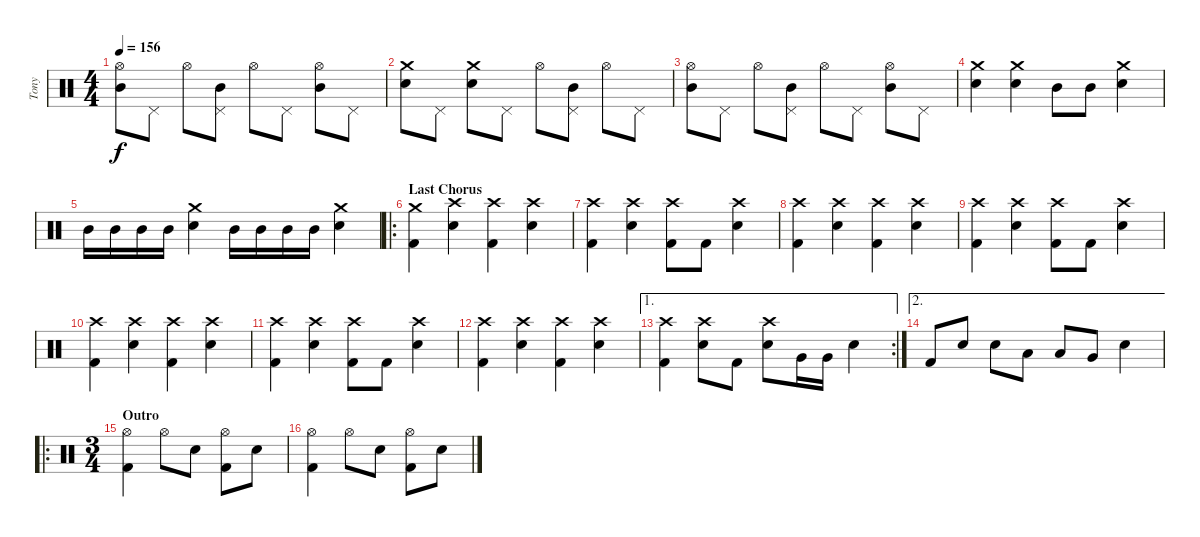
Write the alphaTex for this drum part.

\track ("Tony" "Tony") {instrument percussion}
\staff {score}
\articulation defaults
\ts (4 4)
\tempo 156
\clef neutral
\ks c
("Hi-Hat (open)" "Mid Tom (hit)").8{dy f} "Pedal Hi-Hat (hit)".8 "Hi-Hat (open)".8 ("Pedal Hi-Hat (hit)" "Mid Tom (hit)").8 "Hi-Hat (open)".8 "Pedal Hi-Hat (hit)".8 ("Hi-Hat (open)" "Mid Tom (hit)").8 "Pedal Hi-Hat (hit)".8 |
("Crash medium (hit)" "Electric Snare (hit)").8 "Pedal Hi-Hat (hit)".8 ("Crash medium (hit)" "Electric Snare (hit)").8 "Pedal Hi-Hat (hit)".8 "Hi-Hat (open)".8 ("Pedal Hi-Hat (hit)" "Mid Tom (hit)").8 "Hi-Hat (open)".8 "Pedal Hi-Hat (hit)".8 |
("Hi-Hat (open)" "Mid Tom (hit)").8 "Pedal Hi-Hat (hit)".8 "Hi-Hat (open)".8 ("Pedal Hi-Hat (hit)" "Mid Tom (hit)").8 "Hi-Hat (open)".8 "Pedal Hi-Hat (hit)".8 ("Hi-Hat (open)" "Mid Tom (hit)").8 "Pedal Hi-Hat (hit)".8 |
("Crash medium (hit)" "Electric Snare (hit)").4 ("Crash medium (hit)" "Electric Snare (hit)").4 "Mid Tom (hit)".8 "Mid Tom (hit)".8 ("Crash medium (hit)" "Electric Snare (hit)").4 |
"Mid Tom (hit)".16 "Mid Tom (hit)".16 "Mid Tom (hit)".16 "Mid Tom (hit)".16 ("Crash medium (hit)" "Electric Snare (hit)").4 "Mid Tom (hit)".16 "Mid Tom (hit)".16 "Mid Tom (hit)".16 "Mid Tom (hit)".16 ("Crash medium (hit)" "Electric Snare (hit)").4 |
\ro
\section ("" "Last Chorus")
("Crash medium (hit)" "Kick (hit) 2").4 ("Crash high (hit)" "Electric Snare (hit)").4 ("Crash high (hit)" "Kick (hit) 2").4 ("Crash high (hit)" "Electric Snare (hit)").4 |
("Crash high (hit)" "Kick (hit) 2").4 ("Crash high (hit)" "Electric Snare (hit)").4 ("Crash high (hit)" "Kick (hit) 2").8 "Kick (hit) 2".8 ("Crash high (hit)" "Electric Snare (hit)").4 |
("Crash high (hit)" "Kick (hit) 2").4 ("Crash high (hit)" "Electric Snare (hit)").4 ("Crash high (hit)" "Kick (hit) 2").4 ("Crash high (hit)" "Electric Snare (hit)").4 |
("Crash high (hit)" "Kick (hit) 2").4 ("Crash high (hit)" "Electric Snare (hit)").4 ("Crash high (hit)" "Kick (hit) 2").8 "Kick (hit) 2".8 ("Crash high (hit)" "Electric Snare (hit)").4 |
("Crash high (hit)" "Kick (hit) 2").4 ("Crash high (hit)" "Electric Snare (hit)").4 ("Crash high (hit)" "Kick (hit) 2").4 ("Crash high (hit)" "Electric Snare (hit)").4 |
("Crash high (hit)" "Kick (hit) 2").4 ("Crash high (hit)" "Electric Snare (hit)").4 ("Crash high (hit)" "Kick (hit) 2").8 "Kick (hit) 2".8 ("Crash high (hit)" "Electric Snare (hit)").4 |
("Crash high (hit)" "Kick (hit) 2").4 ("Crash high (hit)" "Electric Snare (hit)").4 ("Crash high (hit)" "Kick (hit) 2").4 ("Crash high (hit)" "Electric Snare (hit)").4 |
\ae 1
\rc 2
("Crash high (hit)" "Kick (hit) 2").4 ("Crash high (hit)" "Electric Snare (hit)").8 "Kick (hit) 2".8 ("Crash high (hit)" "Electric Snare (hit)").8 "Very Low Tom (hit)".16 "Very Low Tom (hit)".16 "Electric Snare (hit)".4 |
\ae 2 "Kick (hit) 2".8 "Electric Snare (hit)".8 "Electric Snare (hit)".8 "Low Tom (hit)".8 "Low Tom (hit)".8 "Very Low Tom (hit)".8 "Electric Snare (hit)".4
|
\ro
\ts (3 4)
\section ("" "Outro")
("Hi-Hat (open)" "Kick (hit) 2").4 "Hi-Hat (open)".8 "Electric Snare (hit)".8 ("Hi-Hat (open)" "Kick (hit) 2").8 "Electric Snare (hit)".8 |
("Hi-Hat (open)" "Kick (hit) 2").4 "Hi-Hat (open)".8 "Electric Snare (hit)".8 ("Hi-Hat (open)" "Kick (hit) 2").8 "Electric Snare (hit)".8
